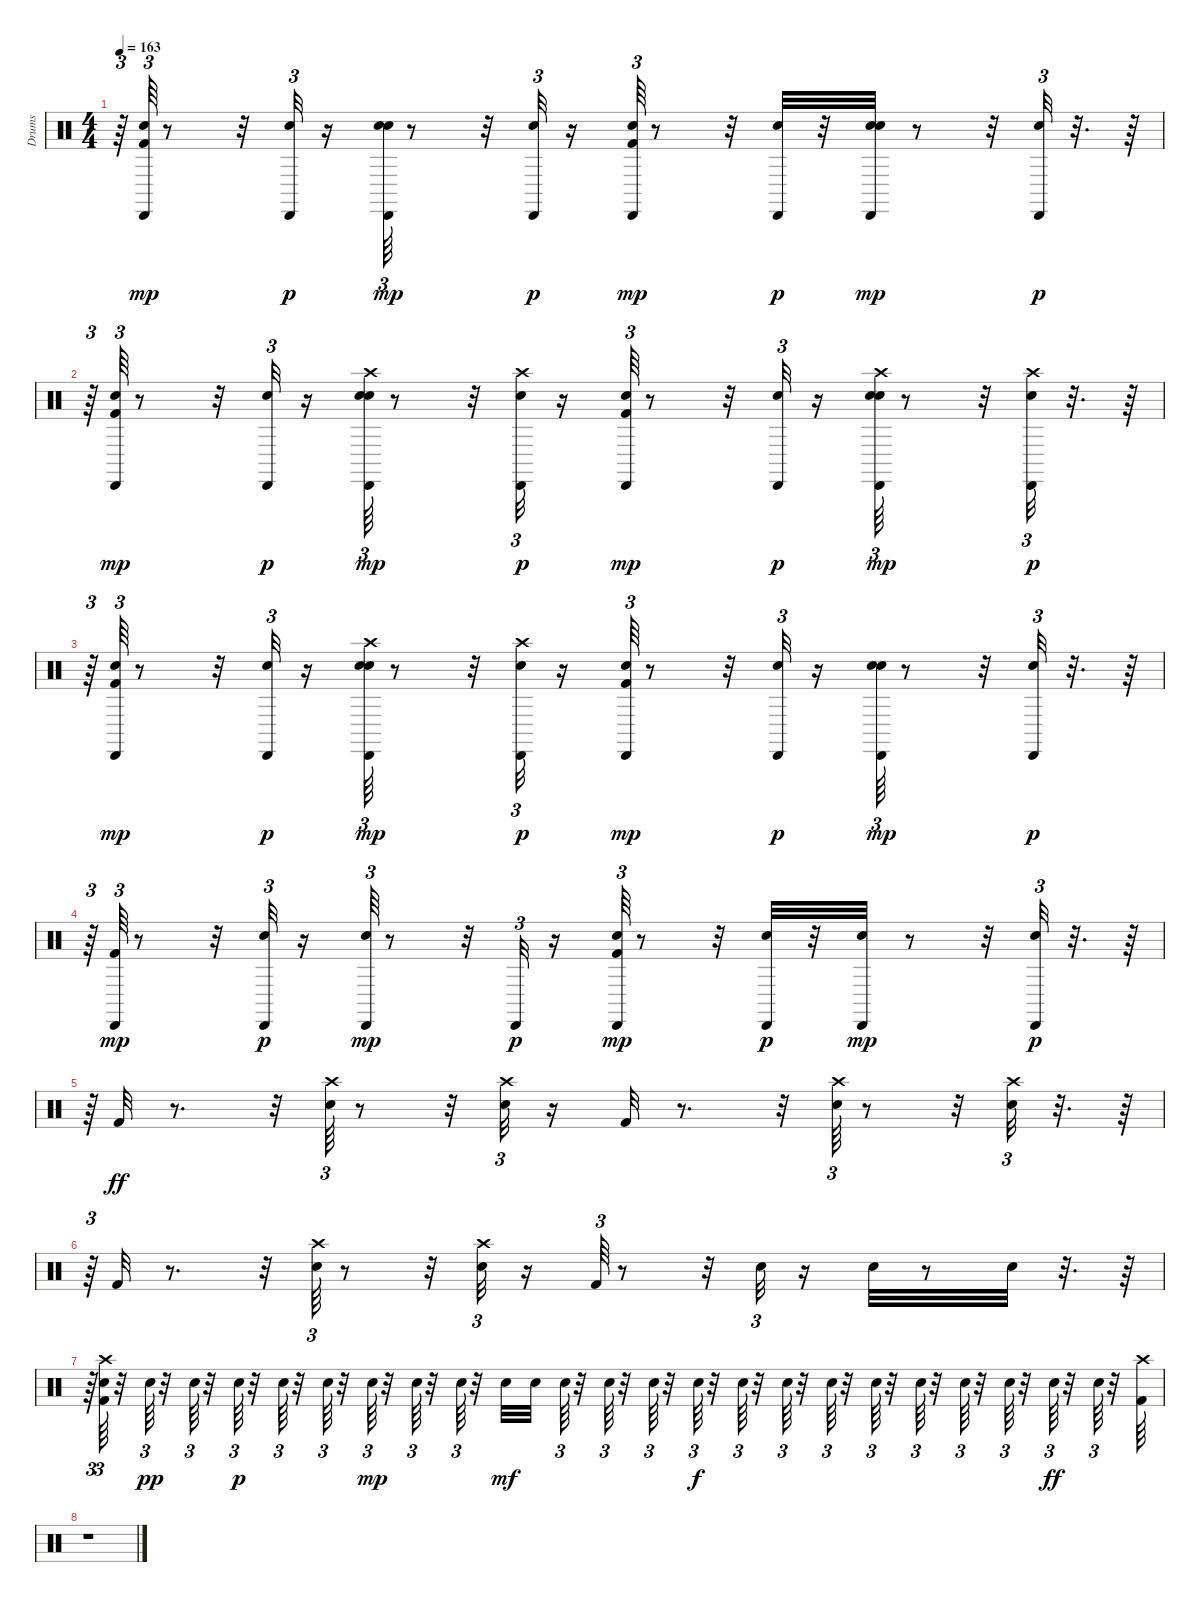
\track ("Drums               " "Drums     ") {instrument percussion}
\staff {score}
\articulation defaults
\ts (4 4)
\tempo 163
\clef neutral
\ks c
r.64{tu (3 2) dy p} ("Kick (hit) 2" "Snare (hit) 2" "Cabasa (hit)").64{tu (3 2) dy mp} r.8 r.32 ("Snare (hit) 2" "Cabasa (hit)").32{tu (3 2) dy p} r.16 ("Snare (hit) 2" "Hand Clap (hit)" "Cabasa (hit)").64{tu (3 2) dy mp} r.8 r.32 ("Snare (hit) 2" "Cabasa (hit)").32{tu (3 2) dy p} r.16 ("Kick (hit) 2" "Snare (hit) 2" "Cabasa (hit)").64{tu (3 2) dy mp} r.8 r.32 ("Snare (hit) 2" "Cabasa (hit)").32{dy p} r.32 ("Snare (hit) 2" "Hand Clap (hit)" "Cabasa (hit)").32{dy mp} r.8 r.32 ("Snare (hit) 2" "Cabasa (hit)").32{tu (3 2) dy p} r.32{d} r.64 |
r.64{tu (3 2)} ("Kick (hit) 2" "Snare (hit) 2" "Cabasa (hit)").64{tu (3 2) dy mp} r.8 r.32 ("Snare (hit) 2" "Cabasa (hit)").32{tu (3 2) dy p} r.16 ("Snare (hit) 2" "Crash high (hit)" "Hand Clap (hit)" "Cabasa (hit)").64{tu (3 2) dy mp} r.8 r.32 ("Snare (hit) 2" "Crash high (hit)" "Cabasa (hit)").32{tu (3 2) dy p} r.16 ("Kick (hit) 2" "Snare (hit) 2" "Cabasa (hit)").64{tu (3 2) dy mp} r.8 r.32 ("Snare (hit) 2" "Cabasa (hit)").32{tu (3 2) dy p} r.16 ("Snare (hit) 2" "Crash high (hit)" "Hand Clap (hit)" "Cabasa (hit)").64{tu (3 2) dy mp} r.8 r.32 ("Snare (hit) 2" "Crash high (hit)" "Cabasa (hit)").32{tu (3 2) dy p} r.32{d} r.64 |
r.64{tu (3 2)} ("Kick (hit) 2" "Snare (hit) 2" "Cabasa (hit)").64{tu (3 2) dy mp} r.8 r.32 ("Snare (hit) 2" "Cabasa (hit)").32{tu (3 2) dy p} r.16 ("Snare (hit) 2" "Crash high (hit)" "Hand Clap (hit)" "Cabasa (hit)").64{tu (3 2) dy mp} r.8 r.32 ("Snare (hit) 2" "Crash high (hit)" "Cabasa (hit)").32{tu (3 2) dy p} r.16 ("Kick (hit) 2" "Snare (hit) 2" "Cabasa (hit)").64{tu (3 2) dy mp} r.8 r.32 ("Snare (hit) 2" "Cabasa (hit)").32{tu (3 2) dy p} r.16 ("Snare (hit) 2" "Hand Clap (hit)" "Cabasa (hit)").64{tu (3 2) dy mp} r.8 r.32 ("Snare (hit) 2" "Cabasa (hit)").32{tu (3 2) dy p} r.32{d} r.64 |
r.64{tu (3 2)} ("Kick (hit) 2" "Cabasa (hit)").64{tu (3 2) dy mp} r.8 r.32 ("Snare (hit) 2" "Cabasa (hit)").32{tu (3 2) dy p} r.16 ("Snare (hit) 2" "Cabasa (hit)").64{tu (3 2) dy mp} r.8 r.32 "Cabasa (hit)".32{tu (3 2) dy p} r.16 ("Kick (hit) 2" "Snare (hit) 2" "Cabasa (hit)").64{tu (3 2) dy mp} r.8 r.32 ("Snare (hit) 2" "Cabasa (hit)").32{dy p} r.32 ("Snare (hit) 2" "Cabasa (hit)").32{dy mp} r.8 r.32 ("Snare (hit) 2" "Cabasa (hit)").32{tu (3 2) dy p} r.32{d} r.64 |
r.64{tu (3 2)} "Kick (hit) 2".32{dy ff} r.8{d} r.32 ("Snare (hit) 2" "Crash high (hit)").64{tu (3 2)} r.8 r.32 ("Snare (hit) 2" "Crash high (hit)").32{tu (3 2)} r.16 "Kick (hit) 2".32 r.8{d} r.32 ("Snare (hit) 2" "Crash high (hit)").64{tu (3 2)} r.8 r.32 ("Snare (hit) 2" "Crash high (hit)").32{tu (3 2)} r.32{d} r.64 |
r.64{tu (3 2)} "Kick (hit) 2".32 r.8{d} r.32 ("Snare (hit) 2" "Crash high (hit)").64{tu (3 2)} r.8 r.32 ("Snare (hit) 2" "Crash high (hit)").32{tu (3 2)} r.16 "Kick (hit) 2".64{tu (3 2)} r.8 r.32 "Snare (hit) 2".32{tu (3 2)} r.16 "Snare (hit) 2".32 r.8 "Snare (hit) 2".32 r.32{d} r.64 |
r.64{tu (3 2)} ("Kick (hit) 2" "Snare (hit) 2" "Crash high (hit)").64{tu (3 2)} r.32 "Snare (hit) 2".64{tu (3 2) dy pp} r.32 "Snare (hit) 2".64{tu (3 2)} r.32 "Snare (hit) 2".64{tu (3 2) dy p} r.32 "Snare (hit) 2".64{tu (3 2)} r.32 "Snare (hit) 2".64{tu (3 2)} r.32 "Snare (hit) 2".64{tu (3 2) dy mp} r.32 "Snare (hit) 2".64{tu (3 2)} r.32 "Snare (hit) 2".64{tu (3 2)} r.32 "Snare (hit) 2".32{dy mf} "Snare (hit) 2".32 "Snare (hit) 2".64{tu (3 2)} r.32 "Snare (hit) 2".64{tu (3 2)} r.32 "Snare (hit) 2".64{tu (3 2)} r.32 "Snare (hit) 2".64{tu (3 2) dy f} r.32 "Snare (hit) 2".64{tu (3 2)} r.32 "Snare (hit) 2".64{tu (3 2)} r.32 "Snare (hit) 2".64{tu (3 2)} r.32 "Snare (hit) 2".64{tu (3 2)} r.32 "Snare (hit) 2".64{tu (3 2)} r.32 "Snare (hit) 2".64{tu (3 2)} r.32 "Snare (hit) 2".64{tu (3 2)} r.32 "Snare (hit) 2".64{tu (3 2) dy ff} r.32 "Snare (hit) 2".64{tu (3 2)} r.32 ("Kick (hit) 2" "Crash high (hit)").64 |
r.1
